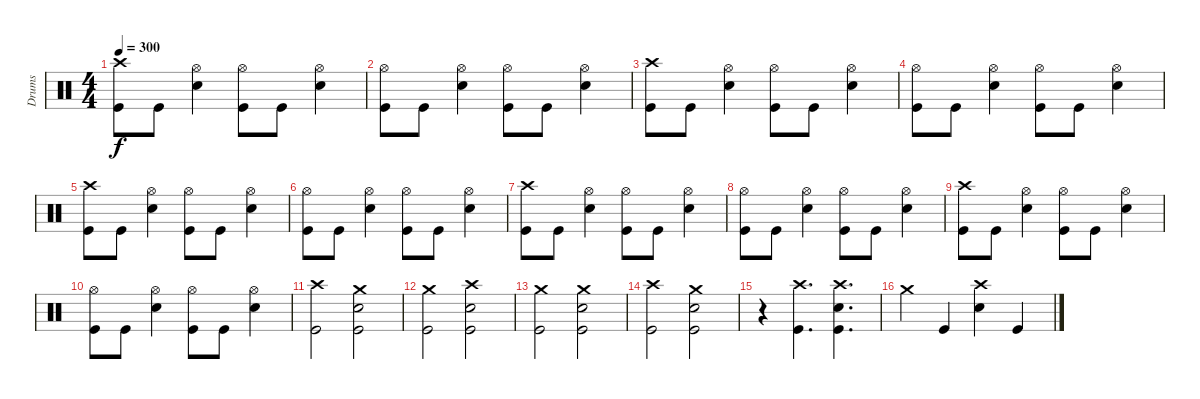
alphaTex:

\track ("Drums" "Drums") {instrument percussion}
\staff {score}
\articulation defaults
\ts (4 4)
\tempo 300
\clef neutral
\ks c
("Crash high (hit)" "Kick (hit)").8{dy f} "Kick (hit)".8 ("Hi-Hat (open)" "Electric Snare (hit)").4 ("Hi-Hat (open)" "Kick (hit)").8 "Kick (hit)".8 ("Hi-Hat (open)" "Electric Snare (hit)").4 |
("Hi-Hat (open)" "Kick (hit)").8 "Kick (hit)".8 ("Hi-Hat (open)" "Electric Snare (hit)").4 ("Hi-Hat (open)" "Kick (hit)").8 "Kick (hit)".8 ("Hi-Hat (open)" "Electric Snare (hit)").4 |
("Crash high (hit)" "Kick (hit)").8 "Kick (hit)".8 ("Hi-Hat (open)" "Electric Snare (hit)").4 ("Hi-Hat (open)" "Kick (hit)").8 "Kick (hit)".8 ("Hi-Hat (open)" "Electric Snare (hit)").4 |
("Hi-Hat (open)" "Kick (hit)").8 "Kick (hit)".8 ("Hi-Hat (open)" "Electric Snare (hit)").4 ("Hi-Hat (open)" "Kick (hit)").8 "Kick (hit)".8 ("Hi-Hat (open)" "Electric Snare (hit)").4 |
("Crash high (hit)" "Kick (hit)").8 "Kick (hit)".8 ("Hi-Hat (open)" "Electric Snare (hit)").4 ("Hi-Hat (open)" "Kick (hit)").8 "Kick (hit)".8 ("Hi-Hat (open)" "Electric Snare (hit)").4 |
("Hi-Hat (open)" "Kick (hit)").8 "Kick (hit)".8 ("Hi-Hat (open)" "Electric Snare (hit)").4 ("Hi-Hat (open)" "Kick (hit)").8 "Kick (hit)".8 ("Hi-Hat (open)" "Electric Snare (hit)").4 |
("Crash high (hit)" "Kick (hit)").8 "Kick (hit)".8 ("Hi-Hat (open)" "Electric Snare (hit)").4 ("Hi-Hat (open)" "Kick (hit)").8 "Kick (hit)".8 ("Hi-Hat (open)" "Electric Snare (hit)").4 |
("Hi-Hat (open)" "Kick (hit)").8 "Kick (hit)".8 ("Hi-Hat (open)" "Electric Snare (hit)").4 ("Hi-Hat (open)" "Kick (hit)").8 "Kick (hit)".8 ("Hi-Hat (open)" "Electric Snare (hit)").4 |
("Crash high (hit)" "Kick (hit)").8 "Kick (hit)".8 ("Hi-Hat (open)" "Electric Snare (hit)").4 ("Hi-Hat (open)" "Kick (hit)").8 "Kick (hit)".8 ("Hi-Hat (open)" "Electric Snare (hit)").4 |
("Hi-Hat (open)" "Kick (hit)").8 "Kick (hit)".8 ("Hi-Hat (open)" "Electric Snare (hit)").4 ("Hi-Hat (open)" "Kick (hit)").8 "Kick (hit)".8 ("Hi-Hat (open)" "Electric Snare (hit)").4 |
("Crash high (hit)" "Kick (hit)").2 ("Crash medium (hit)" "Electric Snare (hit)" "Kick (hit)").2 |
("Crash medium (hit)" "Kick (hit)").2 ("Crash high (hit)" "Electric Snare (hit)" "Kick (hit)").2 |
("Crash medium (hit)" "Kick (hit)").2 ("Crash medium (hit)" "Electric Snare (hit)" "Kick (hit)").2 |
("Crash high (hit)" "Kick (hit)").2 ("Crash medium (hit)" "Electric Snare (hit)" "Kick (hit)").2 |
r.4 ("Crash high (hit)" "Kick (hit)").4{d} ("Crash high (hit)" "Electric Snare (hit)" "Kick (hit)").4{d} |
"Crash medium (hit)".4 "Kick (hit)".4 ("Crash high (hit)" "Electric Snare (hit)").4 "Kick (hit)".4
